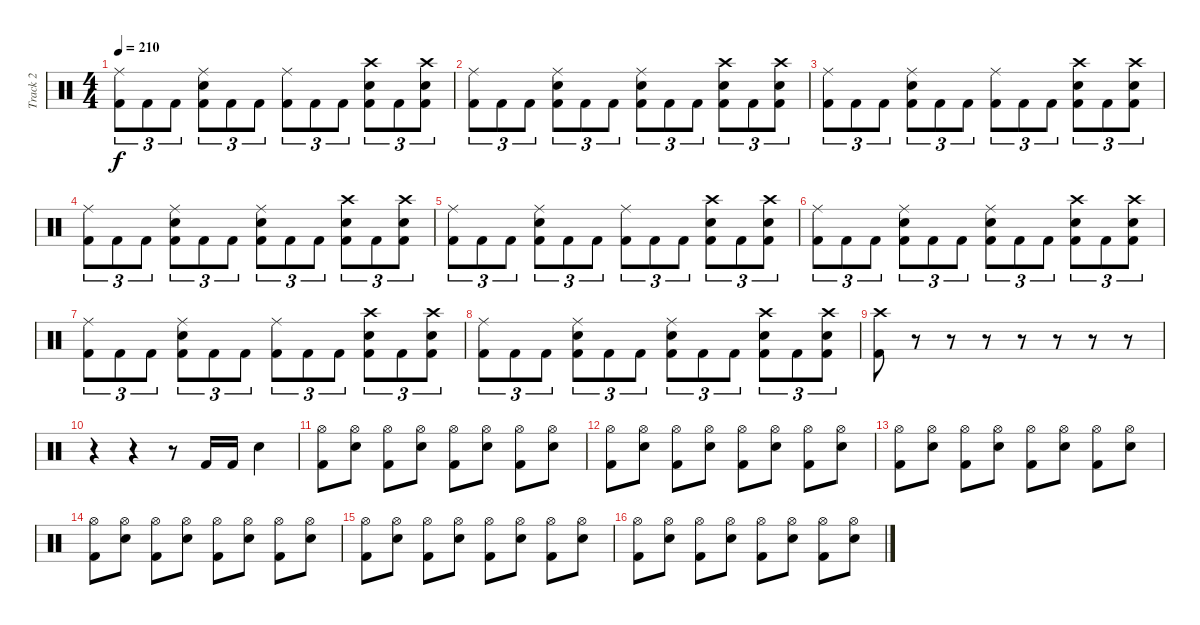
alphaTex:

\track ("Track 2" "Track 2") {instrument percussion}
\staff {score}
\articulation defaults
\ts (4 4)
\tempo 210
\clef neutral
\ks c
("Ride (middle)" "Kick (hit) 2").8{tu (3 2) dy f} "Kick (hit) 2".8{tu (3 2)} "Kick (hit) 2".8{tu (3 2)} ("Ride (middle)" "Snare (hit) 2" "Kick (hit) 2").8{tu (3 2)} "Kick (hit) 2".8{tu (3 2)} "Kick (hit) 2".8{tu (3 2)} ("Ride (middle)" "Kick (hit) 2").8{tu (3 2)} "Kick (hit) 2".8{tu (3 2)} "Kick (hit) 2".8{tu (3 2)} ("Crash high (hit)" "Snare (hit) 2" "Kick (hit) 2").8{tu (3 2)} "Kick (hit) 2".8{tu (3 2)} ("Crash high (hit)" "Snare (hit) 2" "Kick (hit) 2").8{tu (3 2)} |
("Ride (middle)" "Kick (hit) 2").8{tu (3 2)} "Kick (hit) 2".8{tu (3 2)} "Kick (hit) 2".8{tu (3 2)} ("Ride (middle)" "Snare (hit) 2" "Kick (hit) 2").8{tu (3 2)} "Kick (hit) 2".8{tu (3 2)} "Kick (hit) 2".8{tu (3 2)} ("Ride (middle)" "Snare (hit) 2" "Kick (hit) 2").8{tu (3 2)} "Kick (hit) 2".8{tu (3 2)} "Kick (hit) 2".8{tu (3 2)} ("Crash high (hit)" "Snare (hit) 2" "Kick (hit) 2").8{tu (3 2)} "Kick (hit) 2".8{tu (3 2)} ("Crash high (hit)" "Snare (hit) 2" "Kick (hit) 2").8{tu (3 2)} |
("Ride (middle)" "Kick (hit) 2").8{tu (3 2)} "Kick (hit) 2".8{tu (3 2)} "Kick (hit) 2".8{tu (3 2)} ("Ride (middle)" "Snare (hit) 2" "Kick (hit) 2").8{tu (3 2)} "Kick (hit) 2".8{tu (3 2)} "Kick (hit) 2".8{tu (3 2)} ("Ride (middle)" "Kick (hit) 2").8{tu (3 2)} "Kick (hit) 2".8{tu (3 2)} "Kick (hit) 2".8{tu (3 2)} ("Crash high (hit)" "Snare (hit) 2" "Kick (hit) 2").8{tu (3 2)} "Kick (hit) 2".8{tu (3 2)} ("Crash high (hit)" "Snare (hit) 2" "Kick (hit) 2").8{tu (3 2)} |
("Ride (middle)" "Kick (hit) 2").8{tu (3 2)} "Kick (hit) 2".8{tu (3 2)} "Kick (hit) 2".8{tu (3 2)} ("Ride (middle)" "Snare (hit) 2" "Kick (hit) 2").8{tu (3 2)} "Kick (hit) 2".8{tu (3 2)} "Kick (hit) 2".8{tu (3 2)} ("Ride (middle)" "Snare (hit) 2" "Kick (hit) 2").8{tu (3 2)} "Kick (hit) 2".8{tu (3 2)} "Kick (hit) 2".8{tu (3 2)} ("Crash high (hit)" "Snare (hit) 2" "Kick (hit) 2").8{tu (3 2)} "Kick (hit) 2".8{tu (3 2)} ("Crash high (hit)" "Snare (hit) 2" "Kick (hit) 2").8{tu (3 2)} |
("Ride (middle)" "Kick (hit) 2").8{tu (3 2)} "Kick (hit) 2".8{tu (3 2)} "Kick (hit) 2".8{tu (3 2)} ("Ride (middle)" "Snare (hit) 2" "Kick (hit) 2").8{tu (3 2)} "Kick (hit) 2".8{tu (3 2)} "Kick (hit) 2".8{tu (3 2)} ("Ride (middle)" "Kick (hit) 2").8{tu (3 2)} "Kick (hit) 2".8{tu (3 2)} "Kick (hit) 2".8{tu (3 2)} ("Crash high (hit)" "Snare (hit) 2" "Kick (hit) 2").8{tu (3 2)} "Kick (hit) 2".8{tu (3 2)} ("Crash high (hit)" "Snare (hit) 2" "Kick (hit) 2").8{tu (3 2)} |
("Ride (middle)" "Kick (hit) 2").8{tu (3 2)} "Kick (hit) 2".8{tu (3 2)} "Kick (hit) 2".8{tu (3 2)} ("Ride (middle)" "Snare (hit) 2" "Kick (hit) 2").8{tu (3 2)} "Kick (hit) 2".8{tu (3 2)} "Kick (hit) 2".8{tu (3 2)} ("Ride (middle)" "Snare (hit) 2" "Kick (hit) 2").8{tu (3 2)} "Kick (hit) 2".8{tu (3 2)} "Kick (hit) 2".8{tu (3 2)} ("Crash high (hit)" "Snare (hit) 2" "Kick (hit) 2").8{tu (3 2)} "Kick (hit) 2".8{tu (3 2)} ("Crash high (hit)" "Snare (hit) 2" "Kick (hit) 2").8{tu (3 2)} |
("Ride (middle)" "Kick (hit) 2").8{tu (3 2)} "Kick (hit) 2".8{tu (3 2)} "Kick (hit) 2".8{tu (3 2)} ("Ride (middle)" "Snare (hit) 2" "Kick (hit) 2").8{tu (3 2)} "Kick (hit) 2".8{tu (3 2)} "Kick (hit) 2".8{tu (3 2)} ("Ride (middle)" "Kick (hit) 2").8{tu (3 2)} "Kick (hit) 2".8{tu (3 2)} "Kick (hit) 2".8{tu (3 2)} ("Crash high (hit)" "Snare (hit) 2" "Kick (hit) 2").8{tu (3 2)} "Kick (hit) 2".8{tu (3 2)} ("Crash high (hit)" "Snare (hit) 2" "Kick (hit) 2").8{tu (3 2)} |
("Ride (middle)" "Kick (hit) 2").8{tu (3 2)} "Kick (hit) 2".8{tu (3 2)} "Kick (hit) 2".8{tu (3 2)} ("Ride (middle)" "Snare (hit) 2" "Kick (hit) 2").8{tu (3 2)} "Kick (hit) 2".8{tu (3 2)} "Kick (hit) 2".8{tu (3 2)} ("Ride (middle)" "Snare (hit) 2" "Kick (hit) 2").8{tu (3 2)} "Kick (hit) 2".8{tu (3 2)} "Kick (hit) 2".8{tu (3 2)} ("Crash high (hit)" "Snare (hit) 2" "Kick (hit) 2").8{tu (3 2)} "Kick (hit) 2".8{tu (3 2)} ("Crash high (hit)" "Snare (hit) 2" "Kick (hit) 2").8{tu (3 2)} |
("Crash high (hit)" "Kick (hit) 2").8 r.8 r.8 r.8 r.8 r.8 r.8 r.8 |
r.4 r.4 r.8 "Kick (hit) 2".16 "Kick (hit) 2".16 "Snare (hit) 2".4 |
("Hi-Hat (open)" "Kick (hit) 2").8 ("Hi-Hat (open)" "Snare (hit) 2").8 ("Hi-Hat (open)" "Kick (hit) 2").8 ("Hi-Hat (open)" "Snare (hit) 2").8 ("Hi-Hat (open)" "Kick (hit) 2").8 ("Hi-Hat (open)" "Snare (hit) 2").8 ("Hi-Hat (open)" "Kick (hit) 2").8 ("Hi-Hat (open)" "Snare (hit) 2").8 |
("Hi-Hat (open)" "Kick (hit) 2").8 ("Hi-Hat (open)" "Snare (hit) 2").8 ("Hi-Hat (open)" "Kick (hit) 2").8 ("Hi-Hat (open)" "Snare (hit) 2").8 ("Hi-Hat (open)" "Kick (hit) 2").8 ("Hi-Hat (open)" "Snare (hit) 2").8 ("Hi-Hat (open)" "Kick (hit) 2").8 ("Hi-Hat (open)" "Snare (hit) 2").8 |
("Hi-Hat (open)" "Kick (hit) 2").8 ("Hi-Hat (open)" "Snare (hit) 2").8 ("Hi-Hat (open)" "Kick (hit) 2").8 ("Hi-Hat (open)" "Snare (hit) 2").8 ("Hi-Hat (open)" "Kick (hit) 2").8 ("Hi-Hat (open)" "Snare (hit) 2").8 ("Hi-Hat (open)" "Kick (hit) 2").8 ("Hi-Hat (open)" "Snare (hit) 2").8 |
("Hi-Hat (open)" "Kick (hit) 2").8 ("Hi-Hat (open)" "Snare (hit) 2").8 ("Hi-Hat (open)" "Kick (hit) 2").8 ("Hi-Hat (open)" "Snare (hit) 2").8 ("Hi-Hat (open)" "Kick (hit) 2").8 ("Hi-Hat (open)" "Snare (hit) 2").8 ("Hi-Hat (open)" "Kick (hit) 2").8 ("Hi-Hat (open)" "Snare (hit) 2").8 |
("Hi-Hat (open)" "Kick (hit) 2").8 ("Hi-Hat (open)" "Snare (hit) 2").8 ("Hi-Hat (open)" "Kick (hit) 2").8 ("Hi-Hat (open)" "Snare (hit) 2").8 ("Hi-Hat (open)" "Kick (hit) 2").8 ("Hi-Hat (open)" "Snare (hit) 2").8 ("Hi-Hat (open)" "Kick (hit) 2").8 ("Hi-Hat (open)" "Snare (hit) 2").8 |
("Hi-Hat (open)" "Kick (hit) 2").8 ("Hi-Hat (open)" "Snare (hit) 2").8 ("Hi-Hat (open)" "Kick (hit) 2").8 ("Hi-Hat (open)" "Snare (hit) 2").8 ("Hi-Hat (open)" "Kick (hit) 2").8 ("Hi-Hat (open)" "Snare (hit) 2").8 ("Hi-Hat (open)" "Kick (hit) 2").8 ("Hi-Hat (open)" "Snare (hit) 2").8
